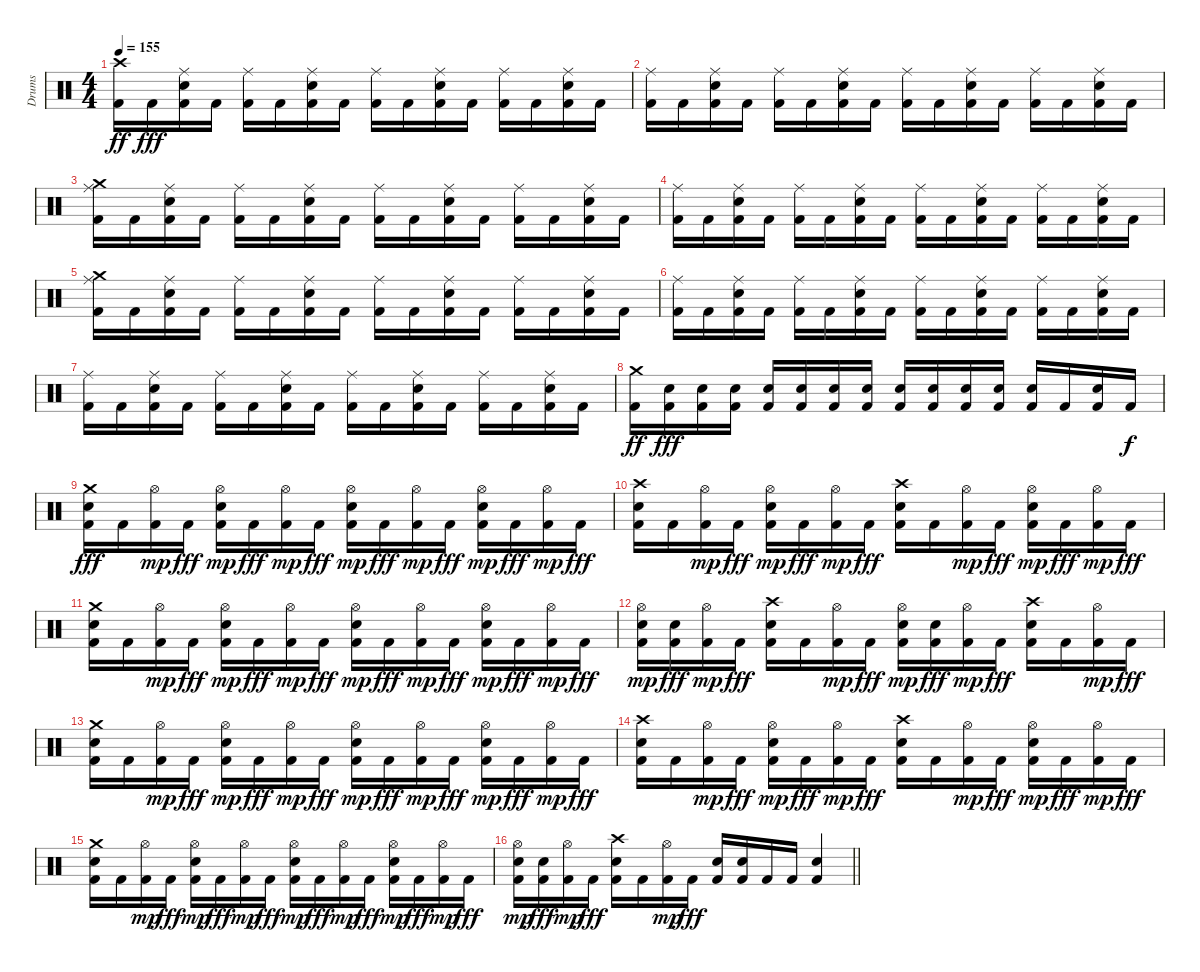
\track ("Drums" "Drums") {instrument percussion}
\staff {score}
\articulation defaults
\ts (4 4)
\tempo 155
\clef neutral
\ks c
("Kick (hit) 2" "Crash high (hit)").16{dy ff} "Kick (hit) 2".16{dy fff} ("Kick (hit) 2" "Ride (middle)" "Snare (hit) 2").16 "Kick (hit) 2".16 ("Kick (hit) 2" "Ride (middle)").16 "Kick (hit) 2".16 ("Kick (hit) 2" "Ride (middle)" "Snare (hit) 2").16 "Kick (hit) 2".16 ("Kick (hit) 2" "Ride (middle)").16 "Kick (hit) 2".16 ("Kick (hit) 2" "Ride (middle)" "Snare (hit) 2").16 "Kick (hit) 2".16 ("Kick (hit) 2" "Ride (middle)").16 "Kick (hit) 2".16 ("Kick (hit) 2" "Ride (middle)" "Snare (hit) 2").16 "Kick (hit) 2".16 |
("Kick (hit) 2" "Ride (middle)").16 "Kick (hit) 2".16 ("Kick (hit) 2" "Ride (middle)" "Snare (hit) 2").16 "Kick (hit) 2".16 ("Kick (hit) 2" "Ride (middle)").16 "Kick (hit) 2".16 ("Kick (hit) 2" "Ride (middle)" "Snare (hit) 2").16 "Kick (hit) 2".16 ("Kick (hit) 2" "Ride (middle)").16 "Kick (hit) 2".16 ("Kick (hit) 2" "Ride (middle)" "Snare (hit) 2").16 "Kick (hit) 2".16 ("Kick (hit) 2" "Ride (middle)").16 "Kick (hit) 2".16 ("Kick (hit) 2" "Ride (middle)" "Snare (hit) 2").16 "Kick (hit) 2".16 |
("Kick (hit) 2" "Ride (middle)" "Crash medium (hit)").16 "Kick (hit) 2".16 ("Kick (hit) 2" "Ride (middle)" "Snare (hit) 2").16 "Kick (hit) 2".16 ("Kick (hit) 2" "Ride (middle)").16 "Kick (hit) 2".16 ("Kick (hit) 2" "Ride (middle)" "Snare (hit) 2").16 "Kick (hit) 2".16 ("Kick (hit) 2" "Ride (middle)").16 "Kick (hit) 2".16 ("Kick (hit) 2" "Ride (middle)" "Snare (hit) 2").16 "Kick (hit) 2".16 ("Kick (hit) 2" "Ride (middle)").16 "Kick (hit) 2".16 ("Kick (hit) 2" "Ride (middle)" "Snare (hit) 2").16 "Kick (hit) 2".16 |
("Kick (hit) 2" "Ride (middle)").16 "Kick (hit) 2".16 ("Kick (hit) 2" "Ride (middle)" "Snare (hit) 2").16 "Kick (hit) 2".16 ("Kick (hit) 2" "Ride (middle)").16 "Kick (hit) 2".16 ("Kick (hit) 2" "Ride (middle)" "Snare (hit) 2").16 "Kick (hit) 2".16 ("Kick (hit) 2" "Ride (middle)").16 "Kick (hit) 2".16 ("Kick (hit) 2" "Ride (middle)" "Snare (hit) 2").16 "Kick (hit) 2".16 ("Kick (hit) 2" "Ride (middle)").16 "Kick (hit) 2".16 ("Kick (hit) 2" "Ride (middle)" "Snare (hit) 2").16 "Kick (hit) 2".16 |
("Kick (hit) 2" "Ride (middle)" "Crash medium (hit)").16 "Kick (hit) 2".16 ("Kick (hit) 2" "Ride (middle)" "Snare (hit) 2").16 "Kick (hit) 2".16 ("Kick (hit) 2" "Ride (middle)").16 "Kick (hit) 2".16 ("Kick (hit) 2" "Ride (middle)" "Snare (hit) 2").16 "Kick (hit) 2".16 ("Kick (hit) 2" "Ride (middle)").16 "Kick (hit) 2".16 ("Kick (hit) 2" "Ride (middle)" "Snare (hit) 2").16 "Kick (hit) 2".16 ("Kick (hit) 2" "Ride (middle)").16 "Kick (hit) 2".16 ("Kick (hit) 2" "Ride (middle)" "Snare (hit) 2").16 "Kick (hit) 2".16 |
("Kick (hit) 2" "Ride (middle)").16 "Kick (hit) 2".16 ("Kick (hit) 2" "Ride (middle)" "Snare (hit) 2").16 "Kick (hit) 2".16 ("Kick (hit) 2" "Ride (middle)").16 "Kick (hit) 2".16 ("Kick (hit) 2" "Ride (middle)" "Snare (hit) 2").16 "Kick (hit) 2".16 ("Kick (hit) 2" "Ride (middle)").16 "Kick (hit) 2".16 ("Kick (hit) 2" "Ride (middle)" "Snare (hit) 2").16 "Kick (hit) 2".16 ("Kick (hit) 2" "Ride (middle)").16 "Kick (hit) 2".16 ("Kick (hit) 2" "Ride (middle)" "Snare (hit) 2").16 "Kick (hit) 2".16 |
("Kick (hit) 2" "Ride (middle)").16 "Kick (hit) 2".16 ("Kick (hit) 2" "Ride (middle)" "Snare (hit) 2").16 "Kick (hit) 2".16 ("Kick (hit) 2" "Ride (middle)").16 "Kick (hit) 2".16 ("Kick (hit) 2" "Ride (middle)" "Snare (hit) 2").16 "Kick (hit) 2".16 ("Kick (hit) 2" "Ride (middle)").16 "Kick (hit) 2".16 ("Kick (hit) 2" "Ride (middle)" "Snare (hit) 2").16 "Kick (hit) 2".16 ("Kick (hit) 2" "Ride (middle)").16 "Kick (hit) 2".16 ("Kick (hit) 2" "Ride (middle)" "Snare (hit) 2").16 "Kick (hit) 2".16 |
("Kick (hit) 2" "Crash medium (hit)").16{dy ff} ("Kick (hit) 2" "Snare (hit) 2").16{dy fff} ("Kick (hit) 2" "Snare (hit) 2").16 ("Kick (hit) 2" "Snare (hit) 2").16 ("Kick (hit) 2" "Snare (hit) 2").16 ("Kick (hit) 2" "Snare (hit) 2").16 ("Kick (hit) 2" "Snare (hit) 2").16 ("Kick (hit) 2" "Snare (hit) 2").16 ("Kick (hit) 2" "Snare (hit) 2").16 ("Kick (hit) 2" "Snare (hit) 2").16 ("Kick (hit) 2" "Snare (hit) 2").16 ("Kick (hit) 2" "Snare (hit) 2").16 ("Kick (hit) 2" "Snare (hit) 2").16 "Kick (hit) 2".16 ("Kick (hit) 2" "Snare (hit) 2").16 "Kick (hit) 2".16{dy f} |
("Kick (hit) 2" "Snare (hit) 2" "Crash medium (hit)").16{dy fff} "Kick (hit) 2".16 ("Kick (hit) 2" "Hi-Hat (open)").16{dy mp} "Kick (hit) 2".16{dy fff} ("Kick (hit) 2" "Hi-Hat (open)" "Snare (hit) 2").16{dy mp} "Kick (hit) 2".16{dy fff} ("Kick (hit) 2" "Hi-Hat (open)").16{dy mp} "Kick (hit) 2".16{dy fff} ("Kick (hit) 2" "Hi-Hat (open)" "Snare (hit) 2").16{dy mp} "Kick (hit) 2".16{dy fff} ("Kick (hit) 2" "Hi-Hat (open)").16{dy mp} "Kick (hit) 2".16{dy fff} ("Kick (hit) 2" "Hi-Hat (open)" "Snare (hit) 2").16{dy mp} "Kick (hit) 2".16{dy fff} ("Kick (hit) 2" "Hi-Hat (open)").16{dy mp} "Kick (hit) 2".16{dy fff} |
("Kick (hit) 2" "Snare (hit) 2" "Crash high (hit)").16 "Kick (hit) 2".16 ("Kick (hit) 2" "Hi-Hat (open)").16{dy mp} "Kick (hit) 2".16{dy fff} ("Kick (hit) 2" "Hi-Hat (open)" "Snare (hit) 2").16{dy mp} "Kick (hit) 2".16{dy fff} ("Kick (hit) 2" "Hi-Hat (open)").16{dy mp} "Kick (hit) 2".16{dy fff} ("Kick (hit) 2" "Snare (hit) 2" "Crash high (hit)").16 "Kick (hit) 2".16 ("Kick (hit) 2" "Hi-Hat (open)").16{dy mp} "Kick (hit) 2".16{dy fff} ("Kick (hit) 2" "Hi-Hat (open)" "Snare (hit) 2").16{dy mp} "Kick (hit) 2".16{dy fff} ("Kick (hit) 2" "Hi-Hat (open)").16{dy mp} "Kick (hit) 2".16{dy fff} |
("Kick (hit) 2" "Snare (hit) 2" "Crash medium (hit)").16 "Kick (hit) 2".16 ("Kick (hit) 2" "Hi-Hat (open)").16{dy mp} "Kick (hit) 2".16{dy fff} ("Kick (hit) 2" "Hi-Hat (open)" "Snare (hit) 2").16{dy mp} "Kick (hit) 2".16{dy fff} ("Kick (hit) 2" "Hi-Hat (open)").16{dy mp} "Kick (hit) 2".16{dy fff} ("Kick (hit) 2" "Hi-Hat (open)" "Snare (hit) 2").16{dy mp} "Kick (hit) 2".16{dy fff} ("Kick (hit) 2" "Hi-Hat (open)").16{dy mp} "Kick (hit) 2".16{dy fff} ("Kick (hit) 2" "Hi-Hat (open)" "Snare (hit) 2").16{dy mp} "Kick (hit) 2".16{dy fff} ("Kick (hit) 2" "Hi-Hat (open)").16{dy mp} "Kick (hit) 2".16{dy fff} |
("Kick (hit) 2" "Hi-Hat (open)" "Snare (hit) 2").16{dy mp} ("Kick (hit) 2" "Snare (hit) 2").16{dy fff} ("Kick (hit) 2" "Hi-Hat (open)").16{dy mp} "Kick (hit) 2".16{dy fff} ("Kick (hit) 2" "Snare (hit) 2" "Crash high (hit)").16 "Kick (hit) 2".16 ("Kick (hit) 2" "Hi-Hat (open)").16{dy mp} "Kick (hit) 2".16{dy fff} ("Kick (hit) 2" "Hi-Hat (open)" "Snare (hit) 2").16{dy mp} ("Kick (hit) 2" "Snare (hit) 2").16{dy fff} ("Kick (hit) 2" "Hi-Hat (open)").16{dy mp} "Kick (hit) 2".16{dy fff} ("Kick (hit) 2" "Snare (hit) 2" "Crash high (hit)").16 "Kick (hit) 2".16 ("Kick (hit) 2" "Hi-Hat (open)").16{dy mp} "Kick (hit) 2".16{dy fff} |
("Kick (hit) 2" "Snare (hit) 2" "Crash medium (hit)").16 "Kick (hit) 2".16 ("Kick (hit) 2" "Hi-Hat (open)").16{dy mp} "Kick (hit) 2".16{dy fff} ("Kick (hit) 2" "Hi-Hat (open)" "Snare (hit) 2").16{dy mp} "Kick (hit) 2".16{dy fff} ("Kick (hit) 2" "Hi-Hat (open)").16{dy mp} "Kick (hit) 2".16{dy fff} ("Kick (hit) 2" "Hi-Hat (open)" "Snare (hit) 2").16{dy mp} "Kick (hit) 2".16{dy fff} ("Kick (hit) 2" "Hi-Hat (open)").16{dy mp} "Kick (hit) 2".16{dy fff} ("Kick (hit) 2" "Hi-Hat (open)" "Snare (hit) 2").16{dy mp} "Kick (hit) 2".16{dy fff} ("Kick (hit) 2" "Hi-Hat (open)").16{dy mp} "Kick (hit) 2".16{dy fff} |
("Kick (hit) 2" "Snare (hit) 2" "Crash high (hit)").16 "Kick (hit) 2".16 ("Kick (hit) 2" "Hi-Hat (open)").16{dy mp} "Kick (hit) 2".16{dy fff} ("Kick (hit) 2" "Hi-Hat (open)" "Snare (hit) 2").16{dy mp} "Kick (hit) 2".16{dy fff} ("Kick (hit) 2" "Hi-Hat (open)").16{dy mp} "Kick (hit) 2".16{dy fff} ("Kick (hit) 2" "Snare (hit) 2" "Crash high (hit)").16 "Kick (hit) 2".16 ("Kick (hit) 2" "Hi-Hat (open)").16{dy mp} "Kick (hit) 2".16{dy fff} ("Kick (hit) 2" "Hi-Hat (open)" "Snare (hit) 2").16{dy mp} "Kick (hit) 2".16{dy fff} ("Kick (hit) 2" "Hi-Hat (open)").16{dy mp} "Kick (hit) 2".16{dy fff} |
("Kick (hit) 2" "Snare (hit) 2" "Crash medium (hit)").16 "Kick (hit) 2".16 ("Kick (hit) 2" "Hi-Hat (open)").16{dy mp} "Kick (hit) 2".16{dy fff} ("Kick (hit) 2" "Hi-Hat (open)" "Snare (hit) 2").16{dy mp} "Kick (hit) 2".16{dy fff} ("Kick (hit) 2" "Hi-Hat (open)").16{dy mp} "Kick (hit) 2".16{dy fff} ("Kick (hit) 2" "Hi-Hat (open)" "Snare (hit) 2").16{dy mp} "Kick (hit) 2".16{dy fff} ("Kick (hit) 2" "Hi-Hat (open)").16{dy mp} "Kick (hit) 2".16{dy fff} ("Kick (hit) 2" "Hi-Hat (open)" "Snare (hit) 2").16{dy mp} "Kick (hit) 2".16{dy fff} ("Kick (hit) 2" "Hi-Hat (open)").16{dy mp} "Kick (hit) 2".16{dy fff} |
\barLineRight lightlight
("Kick (hit) 2" "Hi-Hat (open)" "Snare (hit) 2").16{dy mp} ("Kick (hit) 2" "Snare (hit) 2").16{dy fff} ("Kick (hit) 2" "Hi-Hat (open)").16{dy mp} "Kick (hit) 2".16{dy fff} ("Kick (hit) 2" "Snare (hit) 2" "Crash high (hit)").16 "Kick (hit) 2".16 ("Kick (hit) 2" "Hi-Hat (open)").16{dy mp} "Kick (hit) 2".16{dy fff} ("Kick (hit) 2" "Snare (hit) 2").16 ("Kick (hit) 2" "Snare (hit) 2").16 "Kick (hit) 2".16 "Kick (hit) 2".16 ("Kick (hit) 2" "Snare (hit) 2").4
